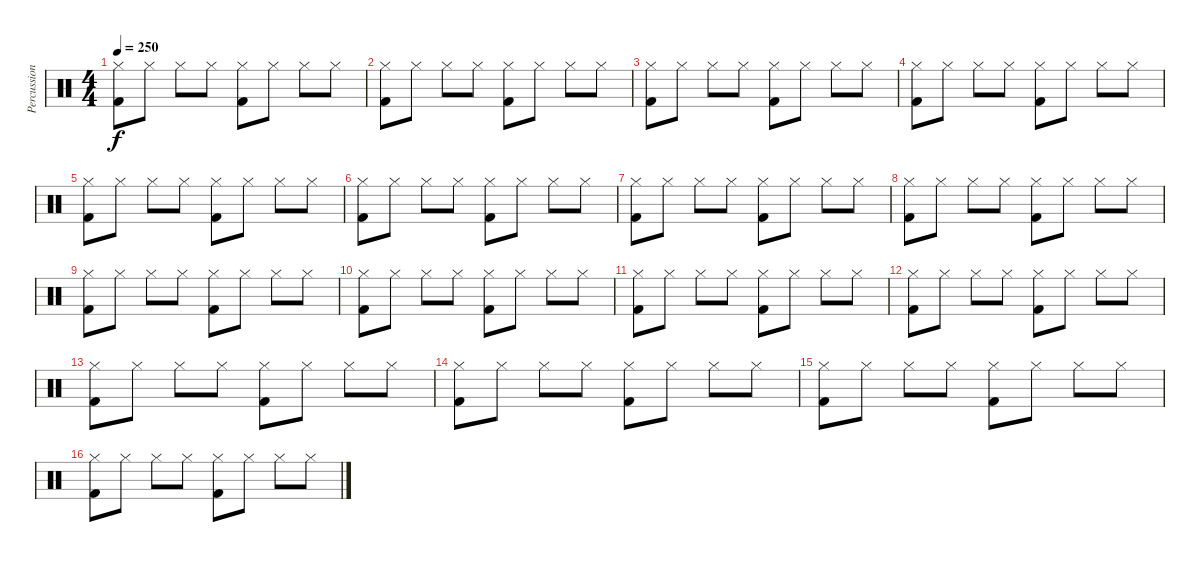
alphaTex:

\track ("Percussion" "Percussion") {instrument percussion}
\staff {score}
\articulation defaults
\ts (4 4)
\tempo 250
\clef neutral
\ks c
("Kick (hit) 2" "Hi-Hat (closed)").8{dy f} "Hi-Hat (closed)".8 "Hi-Hat (closed)".8 "Hi-Hat (closed)".8 ("Kick (hit) 2" "Hi-Hat (closed)").8 "Hi-Hat (closed)".8 "Hi-Hat (closed)".8 "Hi-Hat (closed)".8 |
("Kick (hit) 2" "Hi-Hat (closed)").8 "Hi-Hat (closed)".8 "Hi-Hat (closed)".8 "Hi-Hat (closed)".8 ("Kick (hit) 2" "Hi-Hat (closed)").8 "Hi-Hat (closed)".8 "Hi-Hat (closed)".8 "Hi-Hat (closed)".8 |
("Kick (hit) 2" "Hi-Hat (closed)").8 "Hi-Hat (closed)".8 "Hi-Hat (closed)".8 "Hi-Hat (closed)".8 ("Kick (hit) 2" "Hi-Hat (closed)").8 "Hi-Hat (closed)".8 "Hi-Hat (closed)".8 "Hi-Hat (closed)".8 |
("Kick (hit) 2" "Hi-Hat (closed)").8 "Hi-Hat (closed)".8 "Hi-Hat (closed)".8 "Hi-Hat (closed)".8 ("Kick (hit) 2" "Hi-Hat (closed)").8 "Hi-Hat (closed)".8 "Hi-Hat (closed)".8 "Hi-Hat (closed)".8 |
("Kick (hit) 2" "Hi-Hat (closed)").8 "Hi-Hat (closed)".8 "Hi-Hat (closed)".8 "Hi-Hat (closed)".8 ("Kick (hit) 2" "Hi-Hat (closed)").8 "Hi-Hat (closed)".8 "Hi-Hat (closed)".8 "Hi-Hat (closed)".8 |
("Kick (hit) 2" "Hi-Hat (closed)").8 "Hi-Hat (closed)".8 "Hi-Hat (closed)".8 "Hi-Hat (closed)".8 ("Kick (hit) 2" "Hi-Hat (closed)").8 "Hi-Hat (closed)".8 "Hi-Hat (closed)".8 "Hi-Hat (closed)".8 |
("Kick (hit) 2" "Hi-Hat (closed)").8 "Hi-Hat (closed)".8 "Hi-Hat (closed)".8 "Hi-Hat (closed)".8 ("Kick (hit) 2" "Hi-Hat (closed)").8 "Hi-Hat (closed)".8 "Hi-Hat (closed)".8 "Hi-Hat (closed)".8 |
("Kick (hit) 2" "Hi-Hat (closed)").8 "Hi-Hat (closed)".8 "Hi-Hat (closed)".8 "Hi-Hat (closed)".8 ("Kick (hit) 2" "Hi-Hat (closed)").8 "Hi-Hat (closed)".8 "Hi-Hat (closed)".8 "Hi-Hat (closed)".8 |
("Kick (hit) 2" "Hi-Hat (closed)").8 "Hi-Hat (closed)".8 "Hi-Hat (closed)".8 "Hi-Hat (closed)".8 ("Kick (hit) 2" "Hi-Hat (closed)").8 "Hi-Hat (closed)".8 "Hi-Hat (closed)".8 "Hi-Hat (closed)".8 |
("Kick (hit) 2" "Hi-Hat (closed)").8 "Hi-Hat (closed)".8 "Hi-Hat (closed)".8 "Hi-Hat (closed)".8 ("Kick (hit) 2" "Hi-Hat (closed)").8 "Hi-Hat (closed)".8 "Hi-Hat (closed)".8 "Hi-Hat (closed)".8 |
("Kick (hit) 2" "Hi-Hat (closed)").8 "Hi-Hat (closed)".8 "Hi-Hat (closed)".8 "Hi-Hat (closed)".8 ("Kick (hit) 2" "Hi-Hat (closed)").8 "Hi-Hat (closed)".8 "Hi-Hat (closed)".8 "Hi-Hat (closed)".8 |
("Kick (hit) 2" "Hi-Hat (closed)").8 "Hi-Hat (closed)".8 "Hi-Hat (closed)".8 "Hi-Hat (closed)".8 ("Kick (hit) 2" "Hi-Hat (closed)").8 "Hi-Hat (closed)".8 "Hi-Hat (closed)".8 "Hi-Hat (closed)".8 |
("Kick (hit) 2" "Hi-Hat (closed)").8 "Hi-Hat (closed)".8 "Hi-Hat (closed)".8 "Hi-Hat (closed)".8 ("Kick (hit) 2" "Hi-Hat (closed)").8 "Hi-Hat (closed)".8 "Hi-Hat (closed)".8 "Hi-Hat (closed)".8 |
("Kick (hit) 2" "Hi-Hat (closed)").8 "Hi-Hat (closed)".8 "Hi-Hat (closed)".8 "Hi-Hat (closed)".8 ("Kick (hit) 2" "Hi-Hat (closed)").8 "Hi-Hat (closed)".8 "Hi-Hat (closed)".8 "Hi-Hat (closed)".8 |
("Kick (hit) 2" "Hi-Hat (closed)").8 "Hi-Hat (closed)".8 "Hi-Hat (closed)".8 "Hi-Hat (closed)".8 ("Kick (hit) 2" "Hi-Hat (closed)").8 "Hi-Hat (closed)".8 "Hi-Hat (closed)".8 "Hi-Hat (closed)".8 |
("Kick (hit) 2" "Hi-Hat (closed)").8 "Hi-Hat (closed)".8 "Hi-Hat (closed)".8 "Hi-Hat (closed)".8 ("Kick (hit) 2" "Hi-Hat (closed)").8 "Hi-Hat (closed)".8 "Hi-Hat (closed)".8 "Hi-Hat (closed)".8
